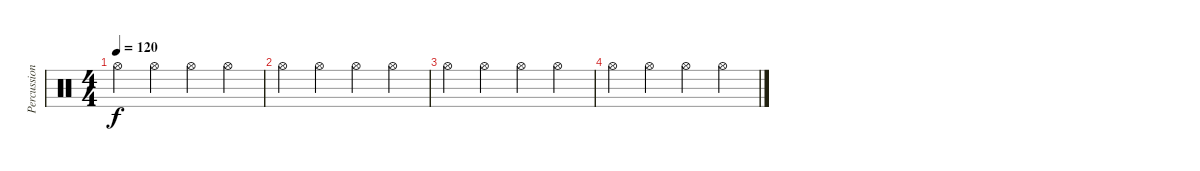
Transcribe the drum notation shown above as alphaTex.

\track ("Percussioni" "Percussion") {instrument percussion}
\staff {score}
\articulation defaults
\ts (4 4)
\tempo 120
\clef neutral
\ks c "Hi-Hat (open)".4{dy f} "Hi-Hat (open)".4 "Hi-Hat (open)".4 "Hi-Hat (open)".4
|
"Hi-Hat (open)".4 "Hi-Hat (open)".4 "Hi-Hat (open)".4 "Hi-Hat (open)".4 |
"Hi-Hat (open)".4 "Hi-Hat (open)".4 "Hi-Hat (open)".4 "Hi-Hat (open)".4 |
"Hi-Hat (open)".4 "Hi-Hat (open)".4 "Hi-Hat (open)".4 "Hi-Hat (open)".4
